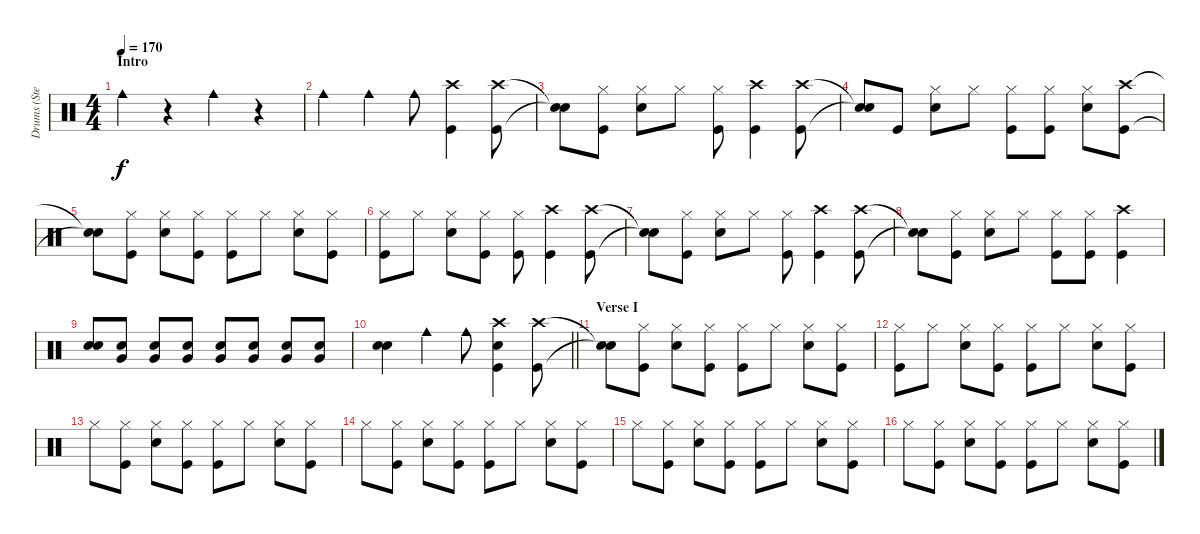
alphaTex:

\track ("Drums (Steven)" "Drums (Ste") {instrument percussion}
\staff {score}
\articulation defaults
\ts (4 4)
\section ("" "Intro")
\tempo 170
\clef neutral
\ks c "Cowbell medium (hit)".4{dy f}
r.4 "Cowbell medium (hit)".4 r.4 |
"Cowbell medium (hit)".4 "Cowbell medium (hit)".4 "Cowbell medium (hit)".8 ("Crash high (hit)" "Kick (hit)").4 ("Crash high (hit)" "Kick (hit)").8 |
("Snare (hit)"{t} "Snare (hit)"{t}).8 ("Hi-Hat (closed)" "Kick (hit)").8 ("Hi-Hat (closed)" "Snare (hit) 2").8 "Hi-Hat (closed)".8 ("Hi-Hat (closed)" "Kick (hit)").8 ("Crash high (hit)" "Kick (hit)").4 ("Crash high (hit)" "Kick (hit)").8 |
("Snare (hit)"{t} "Snare (hit)"{t}).8 "Kick (hit)".8 ("Hi-Hat (closed)" "Snare (hit) 2").8 "Hi-Hat (closed)".8 ("Hi-Hat (closed)" "Kick (hit)").8 ("Hi-Hat (closed)" "Kick (hit)").8 ("Hi-Hat (closed)" "Snare (hit) 2").8 ("Crash high (hit)" "Kick (hit)").8 |
("Snare (hit)"{t} "Snare (hit)"{t}).8 ("Hi-Hat (closed)" "Kick (hit)").8 ("Hi-Hat (closed)" "Snare (hit) 2").8 ("Hi-Hat (closed)" "Kick (hit)").8 ("Hi-Hat (closed)" "Kick (hit)").8 "Hi-Hat (closed)".8 ("Hi-Hat (closed)" "Snare (hit) 2").8 ("Hi-Hat (closed)" "Kick (hit)").8 |
("Hi-Hat (closed)" "Kick (hit)").8 "Hi-Hat (closed)".8 ("Hi-Hat (closed)" "Snare (hit) 2").8 ("Hi-Hat (closed)" "Kick (hit)").8 ("Hi-Hat (closed)" "Kick (hit)").8 ("Crash high (hit)" "Kick (hit)").4 ("Crash high (hit)" "Kick (hit)").8 |
("Snare (hit)"{t} "Snare (hit)"{t}).8 ("Hi-Hat (closed)" "Kick (hit)").8 ("Hi-Hat (closed)" "Snare (hit) 2").8 "Hi-Hat (closed)".8 ("Hi-Hat (closed)" "Kick (hit)").8 ("Crash high (hit)" "Kick (hit)").4 ("Crash high (hit)" "Kick (hit)").8 |
("Snare (hit)"{t} "Snare (hit)"{t}).8 ("Hi-Hat (closed)" "Kick (hit)").8 ("Hi-Hat (closed)" "Snare (hit) 2").8 "Hi-Hat (closed)".8 ("Hi-Hat (closed)" "Kick (hit)").8 ("Hi-Hat (closed)" "Kick (hit)").8 ("Crash high (hit)" "Kick (hit)").4 |
("Snare (hit) 2" "Snare (hit) 2").8 ("Snare (hit) 2" "Very Low Tom (hit)").8 ("Snare (hit) 2" "Very Low Tom (hit)").8 ("Snare (hit) 2" "Very Low Tom (hit)").8 ("Snare (hit) 2" "Very Low Tom (hit)").8 ("Snare (hit) 2" "Very Low Tom (hit)").8 ("Snare (hit) 2" "Very Low Tom (hit)").8 ("Snare (hit) 2" "Very Low Tom (hit)").8 |
\barLineRight lightlight
("Snare (hit) 2" "Snare (hit) 2").4 "Cowbell medium (hit)".4 "Cowbell medium (hit)".8 ("Crash high (hit)" "Kick (hit)" "Snare (hit)").4 ("Crash high (hit)" "Kick (hit)").8 |
\section ("" "Verse I")
("Snare (hit)"{t} "Snare (hit)"{t}).8 ("Hi-Hat (closed)" "Kick (hit)").8 ("Hi-Hat (closed)" "Snare (hit) 2").8 ("Hi-Hat (closed)" "Kick (hit)").8 ("Hi-Hat (closed)" "Kick (hit)").8 "Hi-Hat (closed)".8 ("Hi-Hat (closed)" "Snare (hit) 2").8 ("Hi-Hat (closed)" "Kick (hit)").8 |
("Hi-Hat (closed)" "Kick (hit)").8 "Hi-Hat (closed)".8 ("Hi-Hat (closed)" "Snare (hit) 2").8 ("Hi-Hat (closed)" "Kick (hit)").8 ("Hi-Hat (closed)" "Kick (hit)").8 "Hi-Hat (closed)".8 ("Hi-Hat (closed)" "Snare (hit) 2").8 ("Hi-Hat (closed)" "Kick (hit)").8 |
"Hi-Hat (closed)".8 ("Hi-Hat (closed)" "Kick (hit)").8 ("Hi-Hat (closed)" "Snare (hit) 2").8 ("Hi-Hat (closed)" "Kick (hit)").8 ("Hi-Hat (closed)" "Kick (hit)").8 "Hi-Hat (closed)".8 ("Hi-Hat (closed)" "Snare (hit) 2").8 ("Hi-Hat (closed)" "Kick (hit)").8 |
"Hi-Hat (closed)".8 ("Hi-Hat (closed)" "Kick (hit)").8 ("Hi-Hat (closed)" "Snare (hit) 2").8 ("Hi-Hat (closed)" "Kick (hit)").8 ("Hi-Hat (closed)" "Kick (hit)").8 "Hi-Hat (closed)".8 ("Hi-Hat (closed)" "Snare (hit) 2").8 ("Hi-Hat (closed)" "Kick (hit)").8 |
"Hi-Hat (closed)".8 ("Hi-Hat (closed)" "Kick (hit)").8 ("Hi-Hat (closed)" "Snare (hit) 2").8 ("Hi-Hat (closed)" "Kick (hit)").8 ("Hi-Hat (closed)" "Kick (hit)").8 "Hi-Hat (closed)".8 ("Hi-Hat (closed)" "Snare (hit) 2").8 ("Hi-Hat (closed)" "Kick (hit)").8 |
"Hi-Hat (closed)".8 ("Hi-Hat (closed)" "Kick (hit)").8 ("Hi-Hat (closed)" "Snare (hit) 2").8 ("Hi-Hat (closed)" "Kick (hit)").8 ("Hi-Hat (closed)" "Kick (hit)").8 "Hi-Hat (closed)".8 ("Hi-Hat (closed)" "Snare (hit) 2").8 ("Hi-Hat (closed)" "Kick (hit)").8
